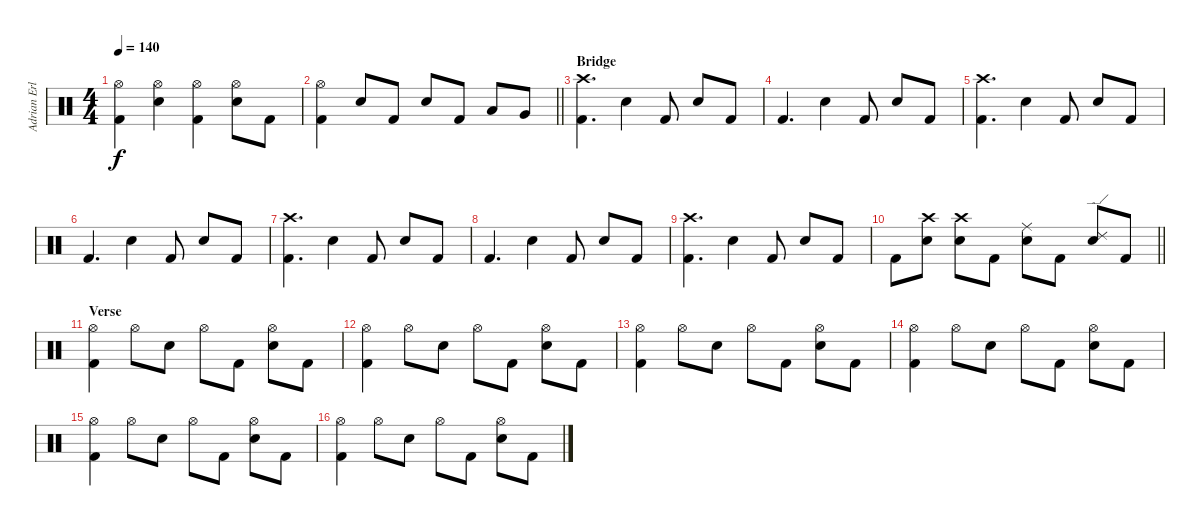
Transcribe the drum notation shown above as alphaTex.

\track ("Adrian Erlandsson" "Adrian Erl") {instrument percussion}
\staff {score}
\articulation defaults
\ts (4 4)
\tempo 140
\clef neutral
\ks c
("Hi-Hat (open)" "Kick (hit) 2").4{dy f} ("Hi-Hat (open)" "Snare (hit) 2").4 ("Hi-Hat (open)" "Kick (hit) 2").4 ("Hi-Hat (open)" "Snare (hit) 2").8 "Kick (hit) 2".8 |
\barLineRight lightlight
("Hi-Hat (open)" "Kick (hit) 2").4 "Snare (hit) 2".8 "Kick (hit) 2".8 "Snare (hit) 2".8 "Kick (hit) 2".8 "Low Tom (hit)".8 "Very Low Tom (hit)".8 |
\section ("" "Bridge")
("Crash high (hit)" "Kick (hit) 2").4{d} "Snare (hit) 2".4 "Kick (hit) 2".8 "Snare (hit) 2".8 "Kick (hit) 2".8 |
"Kick (hit) 2".4{d} "Snare (hit) 2".4 "Kick (hit) 2".8 "Snare (hit) 2".8 "Kick (hit) 2".8 |
("Crash high (hit)" "Kick (hit) 2").4{d} "Snare (hit) 2".4 "Kick (hit) 2".8 "Snare (hit) 2".8 "Kick (hit) 2".8 |
"Kick (hit) 2".4{d} "Snare (hit) 2".4 "Kick (hit) 2".8 "Snare (hit) 2".8 "Kick (hit) 2".8 |
("Crash high (hit)" "Kick (hit) 2").4{d} "Snare (hit) 2".4 "Kick (hit) 2".8 "Snare (hit) 2".8 "Kick (hit) 2".8 |
"Kick (hit) 2".4{d} "Snare (hit) 2".4 "Kick (hit) 2".8 "Snare (hit) 2".8 "Kick (hit) 2".8 |
("Crash high (hit)" "Kick (hit) 2").4{d} "Snare (hit) 2".4 "Kick (hit) 2".8 "Snare (hit) 2".8 "Kick (hit) 2".8 |
\barLineRight lightlight "Kick (hit) 2".8
("Crash high (hit)" "Snare (hit) 2").8 ("Crash high (hit)" "Snare (hit) 2").8 "Kick (hit) 2".8 ("Ride (middle)" "Snare (hit) 2").8 "Kick (hit) 2".8 ("Ride (edge) 2" "Snare (hit) 2").8 "Kick (hit) 2".8 |
\section ("" "Verse")
("Hi-Hat (open)" "Kick (hit) 2").4 "Hi-Hat (open)".8 "Snare (hit) 2".8 "Hi-Hat (open)".8 "Kick (hit) 2".8 ("Hi-Hat (open)" "Snare (hit) 2").8 "Kick (hit) 2".8 |
("Hi-Hat (open)" "Kick (hit) 2").4 "Hi-Hat (open)".8 "Snare (hit) 2".8 "Hi-Hat (open)".8 "Kick (hit) 2".8 ("Hi-Hat (open)" "Snare (hit) 2").8 "Kick (hit) 2".8 |
("Hi-Hat (open)" "Kick (hit) 2").4 "Hi-Hat (open)".8 "Snare (hit) 2".8 "Hi-Hat (open)".8 "Kick (hit) 2".8 ("Hi-Hat (open)" "Snare (hit) 2").8 "Kick (hit) 2".8 |
("Hi-Hat (open)" "Kick (hit) 2").4 "Hi-Hat (open)".8 "Snare (hit) 2".8 "Hi-Hat (open)".8 "Kick (hit) 2".8 ("Hi-Hat (open)" "Snare (hit) 2").8 "Kick (hit) 2".8 |
("Hi-Hat (open)" "Kick (hit) 2").4 "Hi-Hat (open)".8 "Snare (hit) 2".8 "Hi-Hat (open)".8 "Kick (hit) 2".8 ("Hi-Hat (open)" "Snare (hit) 2").8 "Kick (hit) 2".8 |
("Hi-Hat (open)" "Kick (hit) 2").4 "Hi-Hat (open)".8 "Snare (hit) 2".8 "Hi-Hat (open)".8 "Kick (hit) 2".8 ("Hi-Hat (open)" "Snare (hit) 2").8 "Kick (hit) 2".8
